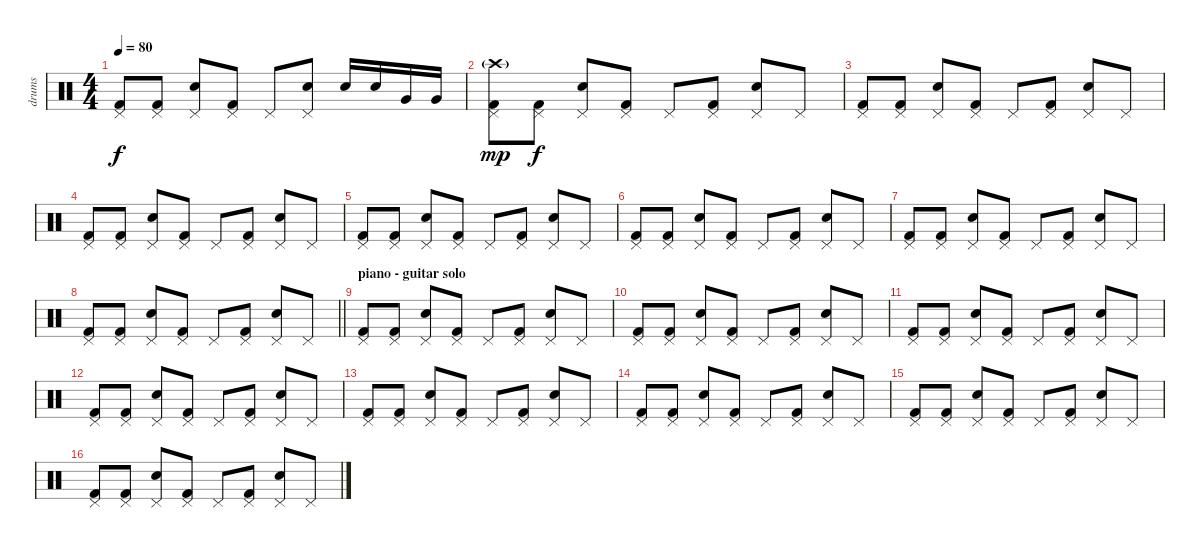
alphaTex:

\track ("drums" "drums") {instrument percussion}
\staff {score}
\articulation defaults
\ts (4 4)
\tempo 80
\clef neutral
\ks c
("Kick (hit) 2" "Pedal Hi-Hat (hit)").8{dy f} ("Kick (hit) 2" "Pedal Hi-Hat (hit)").8 ("Electric Snare (hit)" "Pedal Hi-Hat (hit)").8 ("Kick (hit) 2" "Pedal Hi-Hat (hit)").8 "Pedal Hi-Hat (hit)".8 ("Electric Snare (hit)" "Pedal Hi-Hat (hit)").8 "Electric Snare (hit)".16 "Electric Snare (hit)".16 "Very Low Tom (hit)".16 "Very Low Tom (hit)".16 |
("Kick (hit) 2" "Pedal Hi-Hat (hit)" "Crash high (hit)"{g}).8{dy mp} ("Kick (hit) 2" "Pedal Hi-Hat (hit)").8{dy f} ("Electric Snare (hit)" "Pedal Hi-Hat (hit)").8 ("Kick (hit) 2" "Pedal Hi-Hat (hit)").8 "Pedal Hi-Hat (hit)".8 ("Kick (hit) 2" "Pedal Hi-Hat (hit)").8 ("Electric Snare (hit)" "Pedal Hi-Hat (hit)").8 "Pedal Hi-Hat (hit)".8 |
("Kick (hit) 2" "Pedal Hi-Hat (hit)").8 ("Kick (hit) 2" "Pedal Hi-Hat (hit)").8 ("Electric Snare (hit)" "Pedal Hi-Hat (hit)").8 ("Kick (hit) 2" "Pedal Hi-Hat (hit)").8 "Pedal Hi-Hat (hit)".8 ("Kick (hit) 2" "Pedal Hi-Hat (hit)").8 ("Electric Snare (hit)" "Pedal Hi-Hat (hit)").8 "Pedal Hi-Hat (hit)".8 |
("Kick (hit) 2" "Pedal Hi-Hat (hit)").8 ("Kick (hit) 2" "Pedal Hi-Hat (hit)").8 ("Electric Snare (hit)" "Pedal Hi-Hat (hit)").8 ("Kick (hit) 2" "Pedal Hi-Hat (hit)").8 "Pedal Hi-Hat (hit)".8 ("Kick (hit) 2" "Pedal Hi-Hat (hit)").8 ("Electric Snare (hit)" "Pedal Hi-Hat (hit)").8 "Pedal Hi-Hat (hit)".8 |
("Kick (hit) 2" "Pedal Hi-Hat (hit)").8 ("Kick (hit) 2" "Pedal Hi-Hat (hit)").8 ("Electric Snare (hit)" "Pedal Hi-Hat (hit)").8 ("Kick (hit) 2" "Pedal Hi-Hat (hit)").8 "Pedal Hi-Hat (hit)".8 ("Kick (hit) 2" "Pedal Hi-Hat (hit)").8 ("Electric Snare (hit)" "Pedal Hi-Hat (hit)").8 "Pedal Hi-Hat (hit)".8 |
("Kick (hit) 2" "Pedal Hi-Hat (hit)").8 ("Kick (hit) 2" "Pedal Hi-Hat (hit)").8 ("Electric Snare (hit)" "Pedal Hi-Hat (hit)").8 ("Kick (hit) 2" "Pedal Hi-Hat (hit)").8 "Pedal Hi-Hat (hit)".8 ("Kick (hit) 2" "Pedal Hi-Hat (hit)").8 ("Electric Snare (hit)" "Pedal Hi-Hat (hit)").8 "Pedal Hi-Hat (hit)".8 |
("Kick (hit) 2" "Pedal Hi-Hat (hit)").8 ("Kick (hit) 2" "Pedal Hi-Hat (hit)").8 ("Electric Snare (hit)" "Pedal Hi-Hat (hit)").8 ("Kick (hit) 2" "Pedal Hi-Hat (hit)").8 "Pedal Hi-Hat (hit)".8 ("Kick (hit) 2" "Pedal Hi-Hat (hit)").8 ("Electric Snare (hit)" "Pedal Hi-Hat (hit)").8 "Pedal Hi-Hat (hit)".8 |
\barLineRight lightlight
("Kick (hit) 2" "Pedal Hi-Hat (hit)").8 ("Kick (hit) 2" "Pedal Hi-Hat (hit)").8 ("Electric Snare (hit)" "Pedal Hi-Hat (hit)").8 ("Kick (hit) 2" "Pedal Hi-Hat (hit)").8 "Pedal Hi-Hat (hit)".8 ("Kick (hit) 2" "Pedal Hi-Hat (hit)").8 ("Electric Snare (hit)" "Pedal Hi-Hat (hit)").8 "Pedal Hi-Hat (hit)".8 |
\section ("" "piano - guitar solo")
("Kick (hit) 2" "Pedal Hi-Hat (hit)").8 ("Kick (hit) 2" "Pedal Hi-Hat (hit)").8 ("Electric Snare (hit)" "Pedal Hi-Hat (hit)").8 ("Kick (hit) 2" "Pedal Hi-Hat (hit)").8 "Pedal Hi-Hat (hit)".8 ("Kick (hit) 2" "Pedal Hi-Hat (hit)").8 ("Electric Snare (hit)" "Pedal Hi-Hat (hit)").8 "Pedal Hi-Hat (hit)".8 |
("Kick (hit) 2" "Pedal Hi-Hat (hit)").8 ("Kick (hit) 2" "Pedal Hi-Hat (hit)").8 ("Electric Snare (hit)" "Pedal Hi-Hat (hit)").8 ("Kick (hit) 2" "Pedal Hi-Hat (hit)").8 "Pedal Hi-Hat (hit)".8 ("Kick (hit) 2" "Pedal Hi-Hat (hit)").8 ("Electric Snare (hit)" "Pedal Hi-Hat (hit)").8 "Pedal Hi-Hat (hit)".8 |
("Kick (hit) 2" "Pedal Hi-Hat (hit)").8 ("Kick (hit) 2" "Pedal Hi-Hat (hit)").8 ("Electric Snare (hit)" "Pedal Hi-Hat (hit)").8 ("Kick (hit) 2" "Pedal Hi-Hat (hit)").8 "Pedal Hi-Hat (hit)".8 ("Kick (hit) 2" "Pedal Hi-Hat (hit)").8 ("Electric Snare (hit)" "Pedal Hi-Hat (hit)").8 "Pedal Hi-Hat (hit)".8 |
("Kick (hit) 2" "Pedal Hi-Hat (hit)").8 ("Kick (hit) 2" "Pedal Hi-Hat (hit)").8 ("Electric Snare (hit)" "Pedal Hi-Hat (hit)").8 ("Kick (hit) 2" "Pedal Hi-Hat (hit)").8 "Pedal Hi-Hat (hit)".8 ("Kick (hit) 2" "Pedal Hi-Hat (hit)").8 ("Electric Snare (hit)" "Pedal Hi-Hat (hit)").8 "Pedal Hi-Hat (hit)".8 |
("Kick (hit) 2" "Pedal Hi-Hat (hit)").8 ("Kick (hit) 2" "Pedal Hi-Hat (hit)").8 ("Electric Snare (hit)" "Pedal Hi-Hat (hit)").8 ("Kick (hit) 2" "Pedal Hi-Hat (hit)").8 "Pedal Hi-Hat (hit)".8 ("Kick (hit) 2" "Pedal Hi-Hat (hit)").8 ("Electric Snare (hit)" "Pedal Hi-Hat (hit)").8 "Pedal Hi-Hat (hit)".8 |
("Kick (hit) 2" "Pedal Hi-Hat (hit)").8 ("Kick (hit) 2" "Pedal Hi-Hat (hit)").8 ("Electric Snare (hit)" "Pedal Hi-Hat (hit)").8 ("Kick (hit) 2" "Pedal Hi-Hat (hit)").8 "Pedal Hi-Hat (hit)".8 ("Kick (hit) 2" "Pedal Hi-Hat (hit)").8 ("Electric Snare (hit)" "Pedal Hi-Hat (hit)").8 "Pedal Hi-Hat (hit)".8 |
("Kick (hit) 2" "Pedal Hi-Hat (hit)").8 ("Kick (hit) 2" "Pedal Hi-Hat (hit)").8 ("Electric Snare (hit)" "Pedal Hi-Hat (hit)").8 ("Kick (hit) 2" "Pedal Hi-Hat (hit)").8 "Pedal Hi-Hat (hit)".8 ("Kick (hit) 2" "Pedal Hi-Hat (hit)").8 ("Electric Snare (hit)" "Pedal Hi-Hat (hit)").8 "Pedal Hi-Hat (hit)".8 |
("Kick (hit) 2" "Pedal Hi-Hat (hit)").8 ("Kick (hit) 2" "Pedal Hi-Hat (hit)").8 ("Electric Snare (hit)" "Pedal Hi-Hat (hit)").8 ("Kick (hit) 2" "Pedal Hi-Hat (hit)").8 "Pedal Hi-Hat (hit)".8 ("Kick (hit) 2" "Pedal Hi-Hat (hit)").8 ("Electric Snare (hit)" "Pedal Hi-Hat (hit)").8 "Pedal Hi-Hat (hit)".8
